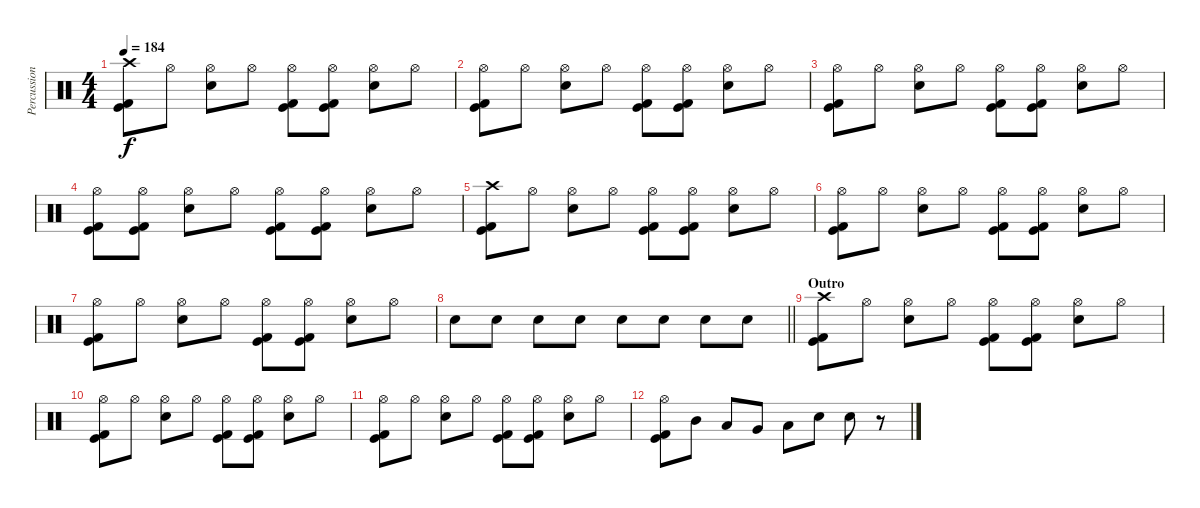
\track ("Percussion" "Percussion") {instrument percussion}
\staff {score}
\articulation defaults
\ts (4 4)
\tempo 184
\clef neutral
\ks c
("Crash high (hit)" "Kick (hit)" "Kick (hit) 2").8{dy f} "Hi-Hat (open)".8 ("Hi-Hat (open)" "Electric Snare (hit)").8 "Hi-Hat (open)".8 ("Hi-Hat (open)" "Kick (hit)" "Kick (hit) 2").8 ("Hi-Hat (open)" "Kick (hit)" "Kick (hit) 2").8 ("Hi-Hat (open)" "Electric Snare (hit)").8 "Hi-Hat (open)".8 |
("Hi-Hat (open)" "Kick (hit)" "Kick (hit) 2").8 "Hi-Hat (open)".8 ("Hi-Hat (open)" "Electric Snare (hit)").8 "Hi-Hat (open)".8 ("Hi-Hat (open)" "Kick (hit)" "Kick (hit) 2").8 ("Hi-Hat (open)" "Kick (hit)" "Kick (hit) 2").8 ("Hi-Hat (open)" "Electric Snare (hit)").8 "Hi-Hat (open)".8 |
("Hi-Hat (open)" "Kick (hit)" "Kick (hit) 2").8 "Hi-Hat (open)".8 ("Hi-Hat (open)" "Electric Snare (hit)").8 "Hi-Hat (open)".8 ("Hi-Hat (open)" "Kick (hit)" "Kick (hit) 2").8 ("Hi-Hat (open)" "Kick (hit)" "Kick (hit) 2").8 ("Hi-Hat (open)" "Electric Snare (hit)").8 "Hi-Hat (open)".8 |
("Hi-Hat (open)" "Kick (hit)" "Kick (hit) 2").8 ("Hi-Hat (open)" "Kick (hit)" "Kick (hit) 2").8 ("Hi-Hat (open)" "Electric Snare (hit)").8 "Hi-Hat (open)".8 ("Hi-Hat (open)" "Kick (hit)" "Kick (hit) 2").8 ("Hi-Hat (open)" "Kick (hit)" "Kick (hit) 2").8 ("Hi-Hat (open)" "Electric Snare (hit)").8 "Hi-Hat (open)".8 |
("Crash high (hit)" "Kick (hit)" "Kick (hit) 2").8 "Hi-Hat (open)".8 ("Hi-Hat (open)" "Electric Snare (hit)").8 "Hi-Hat (open)".8 ("Hi-Hat (open)" "Kick (hit)" "Kick (hit) 2").8 ("Hi-Hat (open)" "Kick (hit)" "Kick (hit) 2").8 ("Hi-Hat (open)" "Electric Snare (hit)").8 "Hi-Hat (open)".8 |
("Hi-Hat (open)" "Kick (hit)" "Kick (hit) 2").8 "Hi-Hat (open)".8 ("Hi-Hat (open)" "Electric Snare (hit)").8 "Hi-Hat (open)".8 ("Hi-Hat (open)" "Kick (hit)" "Kick (hit) 2").8 ("Hi-Hat (open)" "Kick (hit)" "Kick (hit) 2").8 ("Hi-Hat (open)" "Electric Snare (hit)").8 "Hi-Hat (open)".8 |
("Hi-Hat (open)" "Kick (hit)" "Kick (hit) 2").8 "Hi-Hat (open)".8 ("Hi-Hat (open)" "Electric Snare (hit)").8 "Hi-Hat (open)".8 ("Hi-Hat (open)" "Kick (hit)" "Kick (hit) 2").8 ("Hi-Hat (open)" "Kick (hit)" "Kick (hit) 2").8 ("Hi-Hat (open)" "Electric Snare (hit)").8 "Hi-Hat (open)".8 |
\barLineRight lightlight "Electric Snare (hit)".8 "Electric Snare (hit)".8 "Electric Snare (hit)".8 "Electric Snare (hit)".8 "Electric Snare (hit)".8 "Electric Snare (hit)".8 "Electric Snare (hit)".8 "Electric Snare (hit)".8
|
\section ("" "Outro")
("Crash high (hit)" "Kick (hit)" "Kick (hit) 2").8 "Hi-Hat (open)".8 ("Hi-Hat (open)" "Electric Snare (hit)").8 "Hi-Hat (open)".8 ("Hi-Hat (open)" "Kick (hit)" "Kick (hit) 2").8 ("Hi-Hat (open)" "Kick (hit)" "Kick (hit) 2").8 ("Hi-Hat (open)" "Electric Snare (hit)").8 "Hi-Hat (open)".8 |
("Hi-Hat (open)" "Kick (hit)" "Kick (hit) 2").8 "Hi-Hat (open)".8 ("Hi-Hat (open)" "Electric Snare (hit)").8 "Hi-Hat (open)".8 ("Hi-Hat (open)" "Kick (hit)" "Kick (hit) 2").8 ("Hi-Hat (open)" "Kick (hit)" "Kick (hit) 2").8 ("Hi-Hat (open)" "Electric Snare (hit)").8 "Hi-Hat (open)".8 |
("Hi-Hat (open)" "Kick (hit)" "Kick (hit) 2").8 "Hi-Hat (open)".8 ("Hi-Hat (open)" "Electric Snare (hit)").8 "Hi-Hat (open)".8 ("Hi-Hat (open)" "Kick (hit)" "Kick (hit) 2").8 ("Hi-Hat (open)" "Kick (hit)" "Kick (hit) 2").8 ("Hi-Hat (open)" "Electric Snare (hit)").8 "Hi-Hat (open)".8 |
("Hi-Hat (open)" "Kick (hit)" "Kick (hit) 2").8 "Mid Tom (hit)".8 "Low Tom (hit)".8 "Very Low Tom (hit)".8 "Low Floor Tom (hit)".8 "Electric Snare (hit)".8 "Electric Snare (hit)".8 r.8
